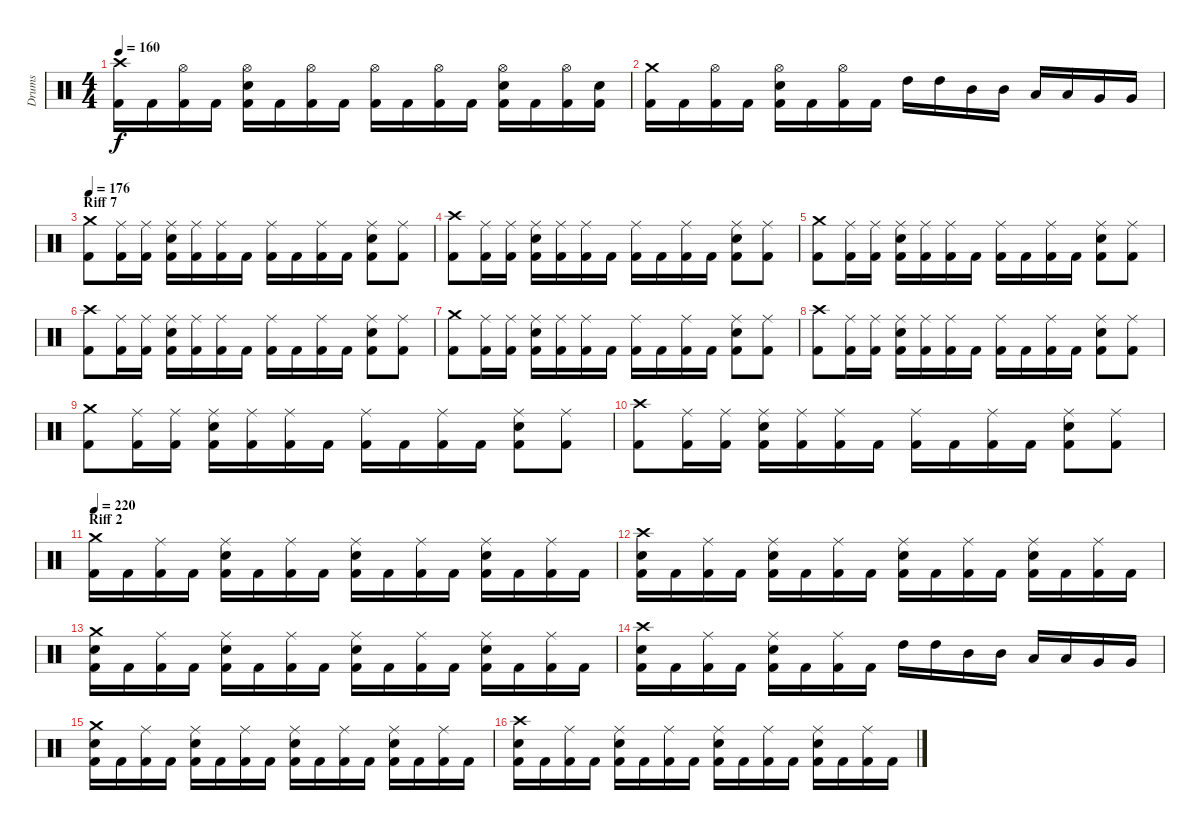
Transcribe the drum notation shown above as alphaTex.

\track ("Drums" "Drums") {instrument percussion}
\staff {score}
\articulation defaults
\ts (4 4)
\tempo 160
\clef neutral
\ks c
("Crash high (hit)" "Kick (hit) 2").16{dy f} "Kick (hit) 2".16 ("Hi-Hat (open)" "Kick (hit) 2").16 "Kick (hit) 2".16 ("Hi-Hat (open)" "Electric Snare (hit)" "Kick (hit) 2").16 "Kick (hit) 2".16 ("Hi-Hat (open)" "Kick (hit) 2").16 "Kick (hit) 2".16 ("Hi-Hat (open)" "Kick (hit) 2").16 "Kick (hit) 2".16 ("Hi-Hat (open)" "Kick (hit) 2").16 "Kick (hit) 2".16 ("Hi-Hat (open)" "Electric Snare (hit)" "Kick (hit) 2").16 "Kick (hit) 2".16 ("Hi-Hat (open)" "Kick (hit) 2").16 ("Electric Snare (hit)" "Kick (hit) 2").16 |
("Crash medium (hit)" "Kick (hit) 2").16 "Kick (hit) 2".16 ("Hi-Hat (open)" "Kick (hit) 2").16 "Kick (hit) 2".16 ("Hi-Hat (open)" "Electric Snare (hit)" "Kick (hit) 2").16 "Kick (hit) 2".16 ("Hi-Hat (open)" "Kick (hit) 2").16 "Kick (hit) 2".16 "High Tom (hit)".16 "High Tom (hit)".16 "Mid Tom (hit)".16 "Mid Tom (hit)".16 "Low Tom (hit)".16 "Low Tom (hit)".16 "Very Low Tom (hit)".16 "Very Low Tom (hit)".16 |
\section ("" "Riff 7")
\tempo 176
("Crash medium (hit)" "Kick (hit) 2").8 ("Ride (middle)" "Kick (hit) 2").16 ("Ride (middle)" "Kick (hit) 2").16 ("Ride (middle)" "Electric Snare (hit)" "Kick (hit) 2").16 ("Ride (middle)" "Kick (hit) 2").16 ("Ride (middle)" "Kick (hit) 2").16 "Kick (hit) 2".16 ("Ride (middle)" "Kick (hit) 2").16 "Kick (hit) 2".16 ("Ride (middle)" "Kick (hit) 2").16 "Kick (hit) 2".16 ("Ride (middle)" "Electric Snare (hit)" "Kick (hit) 2").8 ("Ride (middle)" "Kick (hit) 2").8 |
("Crash high (hit)" "Kick (hit) 2").8 ("Ride (middle)" "Kick (hit) 2").16 ("Ride (middle)" "Kick (hit) 2").16 ("Ride (middle)" "Electric Snare (hit)" "Kick (hit) 2").16 ("Ride (middle)" "Kick (hit) 2").16 ("Ride (middle)" "Kick (hit) 2").16 "Kick (hit) 2".16 ("Ride (middle)" "Kick (hit) 2").16 "Kick (hit) 2".16 ("Ride (middle)" "Kick (hit) 2").16 "Kick (hit) 2".16 ("Ride (middle)" "Electric Snare (hit)" "Kick (hit) 2").8 ("Ride (middle)" "Kick (hit) 2").8 |
("Crash medium (hit)" "Kick (hit) 2").8 ("Ride (middle)" "Kick (hit) 2").16 ("Ride (middle)" "Kick (hit) 2").16 ("Ride (middle)" "Electric Snare (hit)" "Kick (hit) 2").16 ("Ride (middle)" "Kick (hit) 2").16 ("Ride (middle)" "Kick (hit) 2").16 "Kick (hit) 2".16 ("Ride (middle)" "Kick (hit) 2").16 "Kick (hit) 2".16 ("Ride (middle)" "Kick (hit) 2").16 "Kick (hit) 2".16 ("Ride (middle)" "Electric Snare (hit)" "Kick (hit) 2").8 ("Ride (middle)" "Kick (hit) 2").8 |
("Crash high (hit)" "Kick (hit) 2").8 ("Ride (middle)" "Kick (hit) 2").16 ("Ride (middle)" "Kick (hit) 2").16 ("Ride (middle)" "Electric Snare (hit)" "Kick (hit) 2").16 ("Ride (middle)" "Kick (hit) 2").16 ("Ride (middle)" "Kick (hit) 2").16 "Kick (hit) 2".16 ("Ride (middle)" "Kick (hit) 2").16 "Kick (hit) 2".16 ("Ride (middle)" "Kick (hit) 2").16 "Kick (hit) 2".16 ("Ride (middle)" "Electric Snare (hit)" "Kick (hit) 2").8 ("Ride (middle)" "Kick (hit) 2").8 |
("Crash medium (hit)" "Kick (hit) 2").8 ("Ride (middle)" "Kick (hit) 2").16 ("Ride (middle)" "Kick (hit) 2").16 ("Ride (middle)" "Electric Snare (hit)" "Kick (hit) 2").16 ("Ride (middle)" "Kick (hit) 2").16 ("Ride (middle)" "Kick (hit) 2").16 "Kick (hit) 2".16 ("Ride (middle)" "Kick (hit) 2").16 "Kick (hit) 2".16 ("Ride (middle)" "Kick (hit) 2").16 "Kick (hit) 2".16 ("Ride (middle)" "Electric Snare (hit)" "Kick (hit) 2").8 ("Ride (middle)" "Kick (hit) 2").8 |
("Crash high (hit)" "Kick (hit) 2").8 ("Ride (middle)" "Kick (hit) 2").16 ("Ride (middle)" "Kick (hit) 2").16 ("Ride (middle)" "Electric Snare (hit)" "Kick (hit) 2").16 ("Ride (middle)" "Kick (hit) 2").16 ("Ride (middle)" "Kick (hit) 2").16 "Kick (hit) 2".16 ("Ride (middle)" "Kick (hit) 2").16 "Kick (hit) 2".16 ("Ride (middle)" "Kick (hit) 2").16 "Kick (hit) 2".16 ("Ride (middle)" "Electric Snare (hit)" "Kick (hit) 2").8 ("Ride (middle)" "Kick (hit) 2").8 |
("Crash medium (hit)" "Kick (hit) 2").8 ("Ride (middle)" "Kick (hit) 2").16 ("Ride (middle)" "Kick (hit) 2").16 ("Ride (middle)" "Electric Snare (hit)" "Kick (hit) 2").16 ("Ride (middle)" "Kick (hit) 2").16 ("Ride (middle)" "Kick (hit) 2").16 "Kick (hit) 2".16 ("Ride (middle)" "Kick (hit) 2").16 "Kick (hit) 2".16 ("Ride (middle)" "Kick (hit) 2").16 "Kick (hit) 2".16 ("Ride (middle)" "Electric Snare (hit)" "Kick (hit) 2").8 ("Ride (middle)" "Kick (hit) 2").8 |
("Crash high (hit)" "Kick (hit) 2").8 ("Ride (middle)" "Kick (hit) 2").16 ("Ride (middle)" "Kick (hit) 2").16 ("Ride (middle)" "Electric Snare (hit)" "Kick (hit) 2").16 ("Ride (middle)" "Kick (hit) 2").16 ("Ride (middle)" "Kick (hit) 2").16 "Kick (hit) 2".16 ("Ride (middle)" "Kick (hit) 2").16 "Kick (hit) 2".16 ("Ride (middle)" "Kick (hit) 2").16 "Kick (hit) 2".16 ("Ride (middle)" "Electric Snare (hit)" "Kick (hit) 2").8 ("Ride (middle)" "Kick (hit) 2").8 |
\section ("" "Riff 2")
\tempo 220
("Crash medium (hit)" "Kick (hit) 2").16 "Kick (hit) 2".16 ("Ride (middle)" "Kick (hit) 2").16 "Kick (hit) 2".16 ("Ride (middle)" "Electric Snare (hit)" "Kick (hit) 2").16 "Kick (hit) 2".16 ("Ride (middle)" "Kick (hit) 2").16 "Kick (hit) 2".16 ("Ride (middle)" "Electric Snare (hit)" "Kick (hit) 2").16 "Kick (hit) 2".16 ("Ride (middle)" "Kick (hit) 2").16 "Kick (hit) 2".16 ("Ride (middle)" "Electric Snare (hit)" "Kick (hit) 2").16 "Kick (hit) 2".16 ("Ride (middle)" "Kick (hit) 2").16 "Kick (hit) 2".16 |
("Crash high (hit)" "Electric Snare (hit)" "Kick (hit) 2").16 "Kick (hit) 2".16 ("Ride (middle)" "Kick (hit) 2").16 "Kick (hit) 2".16 ("Ride (middle)" "Electric Snare (hit)" "Kick (hit) 2").16 "Kick (hit) 2".16 ("Ride (middle)" "Kick (hit) 2").16 "Kick (hit) 2".16 ("Ride (middle)" "Electric Snare (hit)" "Kick (hit) 2").16 "Kick (hit) 2".16 ("Ride (middle)" "Kick (hit) 2").16 "Kick (hit) 2".16 ("Ride (middle)" "Electric Snare (hit)" "Kick (hit) 2").16 "Kick (hit) 2".16 ("Ride (middle)" "Kick (hit) 2").16 "Kick (hit) 2".16 |
("Crash medium (hit)" "Electric Snare (hit)" "Kick (hit) 2").16 "Kick (hit) 2".16 ("Ride (middle)" "Kick (hit) 2").16 "Kick (hit) 2".16 ("Ride (middle)" "Electric Snare (hit)" "Kick (hit) 2").16 "Kick (hit) 2".16 ("Ride (middle)" "Kick (hit) 2").16 "Kick (hit) 2".16 ("Ride (middle)" "Electric Snare (hit)" "Kick (hit) 2").16 "Kick (hit) 2".16 ("Ride (middle)" "Kick (hit) 2").16 "Kick (hit) 2".16 ("Ride (middle)" "Electric Snare (hit)" "Kick (hit) 2").16 "Kick (hit) 2".16 ("Ride (middle)" "Kick (hit) 2").16 "Kick (hit) 2".16 |
("Crash high (hit)" "Electric Snare (hit)" "Kick (hit) 2").16 "Kick (hit) 2".16 ("Ride (middle)" "Kick (hit) 2").16 "Kick (hit) 2".16 ("Ride (middle)" "Electric Snare (hit)" "Kick (hit) 2").16 "Kick (hit) 2".16 ("Ride (middle)" "Kick (hit) 2").16 "Kick (hit) 2".16 "High Tom (hit)".16 "High Tom (hit)".16 "Mid Tom (hit)".16 "Mid Tom (hit)".16 "Low Tom (hit)".16 "Low Tom (hit)".16 "Very Low Tom (hit)".16 "Very Low Tom (hit)".16 |
("Crash medium (hit)" "Electric Snare (hit)" "Kick (hit) 2").16 "Kick (hit) 2".16 ("Ride (middle)" "Kick (hit) 2").16 "Kick (hit) 2".16 ("Ride (middle)" "Electric Snare (hit)" "Kick (hit) 2").16 "Kick (hit) 2".16 ("Ride (middle)" "Kick (hit) 2").16 "Kick (hit) 2".16 ("Ride (middle)" "Electric Snare (hit)" "Kick (hit) 2").16 "Kick (hit) 2".16 ("Ride (middle)" "Kick (hit) 2").16 "Kick (hit) 2".16 ("Ride (middle)" "Electric Snare (hit)" "Kick (hit) 2").16 "Kick (hit) 2".16 ("Ride (middle)" "Kick (hit) 2").16 "Kick (hit) 2".16 |
("Crash high (hit)" "Electric Snare (hit)" "Kick (hit) 2").16 "Kick (hit) 2".16 ("Ride (middle)" "Kick (hit) 2").16 "Kick (hit) 2".16 ("Ride (middle)" "Electric Snare (hit)" "Kick (hit) 2").16 "Kick (hit) 2".16 ("Ride (middle)" "Kick (hit) 2").16 "Kick (hit) 2".16 ("Ride (middle)" "Electric Snare (hit)" "Kick (hit) 2").16 "Kick (hit) 2".16 ("Ride (middle)" "Kick (hit) 2").16 "Kick (hit) 2".16 ("Ride (middle)" "Electric Snare (hit)" "Kick (hit) 2").16 "Kick (hit) 2".16 ("Ride (middle)" "Kick (hit) 2").16 "Kick (hit) 2".16
